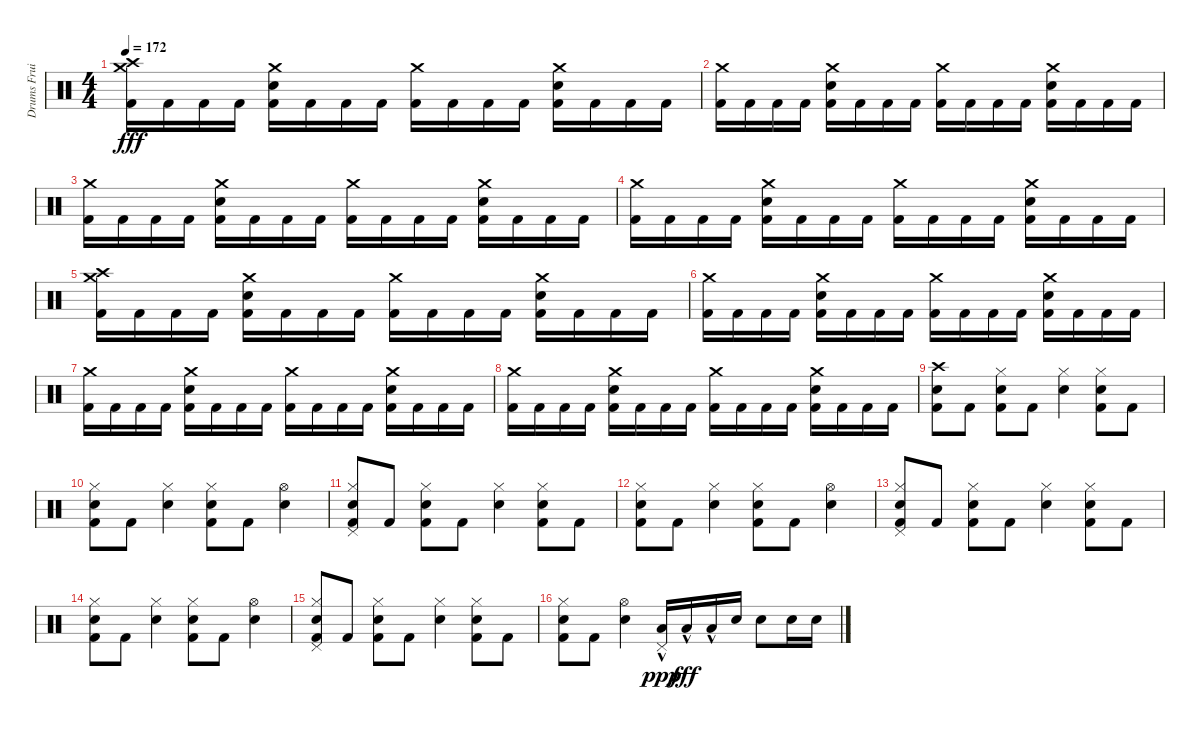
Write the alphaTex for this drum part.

\track ("Drums Fruity Lexia" "Drums Frui") {instrument percussion}
\staff {score}
\articulation defaults
\ts (4 4)
\tempo 172
\clef neutral
\ks c
("Crash high (hit)" "Crash medium (hit)" "Kick (hit) 2").16{dy fff} "Kick (hit) 2".16 "Kick (hit) 2".16 "Kick (hit) 2".16 ("Crash medium (hit)" "Electric Snare (hit)" "Kick (hit) 2").16 "Kick (hit) 2".16 "Kick (hit) 2".16 "Kick (hit) 2".16 ("Crash medium (hit)" "Kick (hit) 2").16 "Kick (hit) 2".16 "Kick (hit) 2".16 "Kick (hit) 2".16 ("Crash medium (hit)" "Electric Snare (hit)" "Kick (hit) 2").16 "Kick (hit) 2".16 "Kick (hit) 2".16 "Kick (hit) 2".16 |
("Crash medium (hit)" "Kick (hit) 2").16 "Kick (hit) 2".16 "Kick (hit) 2".16 "Kick (hit) 2".16 ("Crash medium (hit)" "Electric Snare (hit)" "Kick (hit) 2").16 "Kick (hit) 2".16 "Kick (hit) 2".16 "Kick (hit) 2".16 ("Crash medium (hit)" "Kick (hit) 2").16 "Kick (hit) 2".16 "Kick (hit) 2".16 "Kick (hit) 2".16 ("Crash medium (hit)" "Electric Snare (hit)" "Kick (hit) 2").16 "Kick (hit) 2".16 "Kick (hit) 2".16 "Kick (hit) 2".16 |
("Crash medium (hit)" "Kick (hit) 2").16 "Kick (hit) 2".16 "Kick (hit) 2".16 "Kick (hit) 2".16 ("Crash medium (hit)" "Electric Snare (hit)" "Kick (hit) 2").16 "Kick (hit) 2".16 "Kick (hit) 2".16 "Kick (hit) 2".16 ("Crash medium (hit)" "Kick (hit) 2").16 "Kick (hit) 2".16 "Kick (hit) 2".16 "Kick (hit) 2".16 ("Crash medium (hit)" "Electric Snare (hit)" "Kick (hit) 2").16 "Kick (hit) 2".16 "Kick (hit) 2".16 "Kick (hit) 2".16 |
("Crash medium (hit)" "Kick (hit) 2").16 "Kick (hit) 2".16 "Kick (hit) 2".16 "Kick (hit) 2".16 ("Crash medium (hit)" "Electric Snare (hit)" "Kick (hit) 2").16 "Kick (hit) 2".16 "Kick (hit) 2".16 "Kick (hit) 2".16 ("Crash medium (hit)" "Kick (hit) 2").16 "Kick (hit) 2".16 "Kick (hit) 2".16 "Kick (hit) 2".16 ("Crash medium (hit)" "Electric Snare (hit)" "Kick (hit) 2").16 "Kick (hit) 2".16 "Kick (hit) 2".16 "Kick (hit) 2".16 |
("Crash high (hit)" "Crash medium (hit)" "Kick (hit) 2").16 "Kick (hit) 2".16 "Kick (hit) 2".16 "Kick (hit) 2".16 ("Crash medium (hit)" "Electric Snare (hit)" "Kick (hit) 2").16 "Kick (hit) 2".16 "Kick (hit) 2".16 "Kick (hit) 2".16 ("Crash medium (hit)" "Kick (hit) 2").16 "Kick (hit) 2".16 "Kick (hit) 2".16 "Kick (hit) 2".16 ("Crash medium (hit)" "Electric Snare (hit)" "Kick (hit) 2").16 "Kick (hit) 2".16 "Kick (hit) 2".16 "Kick (hit) 2".16 |
("Crash medium (hit)" "Kick (hit) 2").16 "Kick (hit) 2".16 "Kick (hit) 2".16 "Kick (hit) 2".16 ("Crash medium (hit)" "Electric Snare (hit)" "Kick (hit) 2").16 "Kick (hit) 2".16 "Kick (hit) 2".16 "Kick (hit) 2".16 ("Crash medium (hit)" "Kick (hit) 2").16 "Kick (hit) 2".16 "Kick (hit) 2".16 "Kick (hit) 2".16 ("Crash medium (hit)" "Electric Snare (hit)" "Kick (hit) 2").16 "Kick (hit) 2".16 "Kick (hit) 2".16 "Kick (hit) 2".16 |
("Crash medium (hit)" "Kick (hit) 2").16 "Kick (hit) 2".16 "Kick (hit) 2".16 "Kick (hit) 2".16 ("Crash medium (hit)" "Electric Snare (hit)" "Kick (hit) 2").16 "Kick (hit) 2".16 "Kick (hit) 2".16 "Kick (hit) 2".16 ("Crash medium (hit)" "Kick (hit) 2").16 "Kick (hit) 2".16 "Kick (hit) 2".16 "Kick (hit) 2".16 ("Crash medium (hit)" "Electric Snare (hit)" "Kick (hit) 2").16 "Kick (hit) 2".16 "Kick (hit) 2".16 "Kick (hit) 2".16 |
("Crash medium (hit)" "Kick (hit) 2").16 "Kick (hit) 2".16 "Kick (hit) 2".16 "Kick (hit) 2".16 ("Crash medium (hit)" "Electric Snare (hit)" "Kick (hit) 2").16 "Kick (hit) 2".16 "Kick (hit) 2".16 "Kick (hit) 2".16 ("Crash medium (hit)" "Kick (hit) 2").16 "Kick (hit) 2".16 "Kick (hit) 2".16 "Kick (hit) 2".16 ("Crash medium (hit)" "Electric Snare (hit)" "Kick (hit) 2").16 "Kick (hit) 2".16 "Kick (hit) 2".16 "Kick (hit) 2".16 |
("Crash high (hit)" "Electric Snare (hit)" "Kick (hit) 2").8 "Kick (hit) 2".8 ("Hi-Hat (closed)" "Electric Snare (hit)" "Kick (hit) 2").8 "Kick (hit) 2".8 ("Hi-Hat (closed)" "Electric Snare (hit)").4 ("Hi-Hat (closed)" "Electric Snare (hit)" "Kick (hit) 2").8 "Kick (hit) 2".8 |
("Hi-Hat (closed)" "Electric Snare (hit)" "Kick (hit) 2").8 "Kick (hit) 2".8 ("Hi-Hat (closed)" "Electric Snare (hit)").4 ("Hi-Hat (closed)" "Electric Snare (hit)" "Kick (hit) 2").8 "Kick (hit) 2".8 ("Hi-Hat (open)" "Electric Snare (hit)").4 |
("Hi-Hat (closed)" "Electric Snare (hit)" "Pedal Hi-Hat (hit)" "Kick (hit) 2").8 "Kick (hit) 2".8 ("Hi-Hat (closed)" "Electric Snare (hit)" "Kick (hit) 2").8 "Kick (hit) 2".8 ("Hi-Hat (closed)" "Electric Snare (hit)").4 ("Hi-Hat (closed)" "Electric Snare (hit)" "Kick (hit) 2").8 "Kick (hit) 2".8 |
("Hi-Hat (closed)" "Electric Snare (hit)" "Kick (hit) 2").8 "Kick (hit) 2".8 ("Hi-Hat (closed)" "Electric Snare (hit)").4 ("Hi-Hat (closed)" "Electric Snare (hit)" "Kick (hit) 2").8 "Kick (hit) 2".8 ("Hi-Hat (open)" "Electric Snare (hit)").4 |
("Hi-Hat (closed)" "Electric Snare (hit)" "Pedal Hi-Hat (hit)" "Kick (hit) 2").8 "Kick (hit) 2".8 ("Hi-Hat (closed)" "Electric Snare (hit)" "Kick (hit) 2").8 "Kick (hit) 2".8 ("Hi-Hat (closed)" "Electric Snare (hit)").4 ("Hi-Hat (closed)" "Electric Snare (hit)" "Kick (hit) 2").8 "Kick (hit) 2".8 |
("Hi-Hat (closed)" "Electric Snare (hit)" "Kick (hit) 2").8 "Kick (hit) 2".8 ("Hi-Hat (closed)" "Electric Snare (hit)").4 ("Hi-Hat (closed)" "Electric Snare (hit)" "Kick (hit) 2").8 "Kick (hit) 2".8 ("Hi-Hat (open)" "Electric Snare (hit)").4 |
("Hi-Hat (closed)" "Electric Snare (hit)" "Pedal Hi-Hat (hit)" "Kick (hit) 2").8 "Kick (hit) 2".8 ("Hi-Hat (closed)" "Electric Snare (hit)" "Kick (hit) 2").8 "Kick (hit) 2".8 ("Hi-Hat (closed)" "Electric Snare (hit)").4 ("Hi-Hat (closed)" "Electric Snare (hit)" "Kick (hit) 2").8 "Kick (hit) 2".8 |
("Hi-Hat (closed)" "Electric Snare (hit)" "Kick (hit) 2").8 "Kick (hit) 2".8 ("Hi-Hat (open)" "Electric Snare (hit)").4 ("Low Tom (hit)"{hac} "Pedal Hi-Hat (hit)").16{dy ppp} "Low Tom (hit)"{hac}.16{dy fff} "Low Tom (hit)"{hac}.16 "Electric Snare (hit)".16 "Electric Snare (hit)".8 "Electric Snare (hit)".16 "Electric Snare (hit)".16
